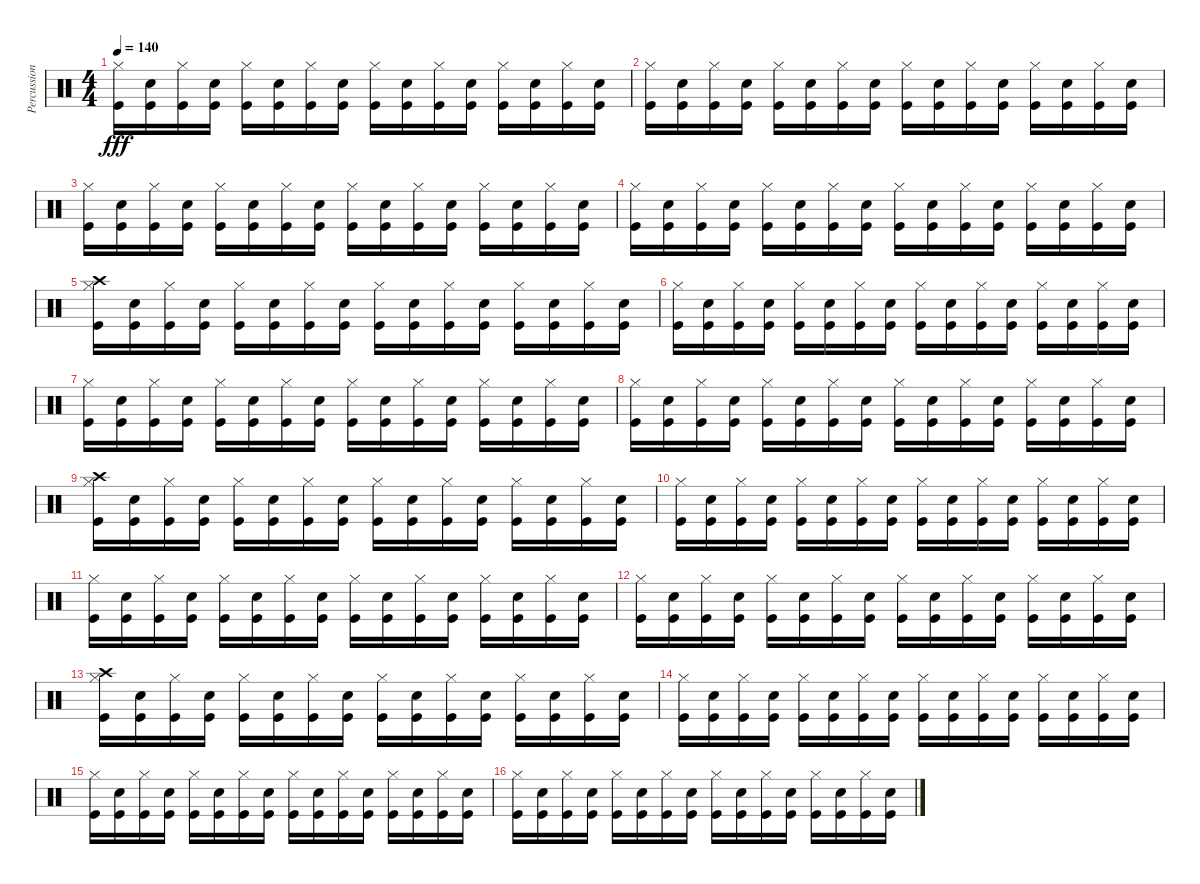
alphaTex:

\track ("Percussion" "Percussion") {instrument percussion}
\staff {score}
\articulation defaults
\ts (4 4)
\tempo 140
\clef neutral
\ks c
("Hi-Hat (closed)" "Kick (hit)").16{dy fff} ("Snare (hit) 2" "Kick (hit)").16 ("Hi-Hat (closed)" "Kick (hit)").16 ("Snare (hit) 2" "Kick (hit)").16 ("Hi-Hat (closed)" "Kick (hit)").16 ("Snare (hit) 2" "Kick (hit)").16 ("Hi-Hat (closed)" "Kick (hit)").16 ("Snare (hit) 2" "Kick (hit)").16 ("Hi-Hat (closed)" "Kick (hit)").16 ("Snare (hit) 2" "Kick (hit)").16 ("Hi-Hat (closed)" "Kick (hit)").16 ("Snare (hit) 2" "Kick (hit)").16 ("Hi-Hat (closed)" "Kick (hit)").16 ("Snare (hit) 2" "Kick (hit)").16 ("Hi-Hat (closed)" "Kick (hit)").16 ("Snare (hit) 2" "Kick (hit)").16 |
("Hi-Hat (closed)" "Kick (hit)").16 ("Snare (hit) 2" "Kick (hit)").16 ("Hi-Hat (closed)" "Kick (hit)").16 ("Snare (hit) 2" "Kick (hit)").16 ("Hi-Hat (closed)" "Kick (hit)").16 ("Snare (hit) 2" "Kick (hit)").16 ("Hi-Hat (closed)" "Kick (hit)").16 ("Snare (hit) 2" "Kick (hit)").16 ("Hi-Hat (closed)" "Kick (hit)").16 ("Snare (hit) 2" "Kick (hit)").16 ("Hi-Hat (closed)" "Kick (hit)").16 ("Snare (hit) 2" "Kick (hit)").16 ("Hi-Hat (closed)" "Kick (hit)").16 ("Snare (hit) 2" "Kick (hit)").16 ("Hi-Hat (closed)" "Kick (hit)").16 ("Snare (hit) 2" "Kick (hit)").16 |
("Hi-Hat (closed)" "Kick (hit)").16 ("Snare (hit) 2" "Kick (hit)").16 ("Hi-Hat (closed)" "Kick (hit)").16 ("Snare (hit) 2" "Kick (hit)").16 ("Hi-Hat (closed)" "Kick (hit)").16 ("Snare (hit) 2" "Kick (hit)").16 ("Hi-Hat (closed)" "Kick (hit)").16 ("Snare (hit) 2" "Kick (hit)").16 ("Hi-Hat (closed)" "Kick (hit)").16 ("Snare (hit) 2" "Kick (hit)").16 ("Hi-Hat (closed)" "Kick (hit)").16 ("Snare (hit) 2" "Kick (hit)").16 ("Hi-Hat (closed)" "Kick (hit)").16 ("Snare (hit) 2" "Kick (hit)").16 ("Hi-Hat (closed)" "Kick (hit)").16 ("Snare (hit) 2" "Kick (hit)").16 |
("Hi-Hat (closed)" "Kick (hit)").16 ("Snare (hit) 2" "Kick (hit)").16 ("Hi-Hat (closed)" "Kick (hit)").16 ("Snare (hit) 2" "Kick (hit)").16 ("Hi-Hat (closed)" "Kick (hit)").16 ("Snare (hit) 2" "Kick (hit)").16 ("Hi-Hat (closed)" "Kick (hit)").16 ("Snare (hit) 2" "Kick (hit)").16 ("Hi-Hat (closed)" "Kick (hit)").16 ("Snare (hit) 2" "Kick (hit)").16 ("Hi-Hat (closed)" "Kick (hit)").16 ("Snare (hit) 2" "Kick (hit)").16 ("Hi-Hat (closed)" "Kick (hit)").16 ("Snare (hit) 2" "Kick (hit)").16 ("Hi-Hat (closed)" "Kick (hit)").16 ("Snare (hit) 2" "Kick (hit)").16 |
("Crash high (hit)" "Hi-Hat (closed)" "Kick (hit)").16 ("Snare (hit) 2" "Kick (hit)").16 ("Hi-Hat (closed)" "Kick (hit)").16 ("Snare (hit) 2" "Kick (hit)").16 ("Hi-Hat (closed)" "Kick (hit)").16 ("Snare (hit) 2" "Kick (hit)").16 ("Hi-Hat (closed)" "Kick (hit)").16 ("Snare (hit) 2" "Kick (hit)").16 ("Hi-Hat (closed)" "Kick (hit)").16 ("Snare (hit) 2" "Kick (hit)").16 ("Hi-Hat (closed)" "Kick (hit)").16 ("Snare (hit) 2" "Kick (hit)").16 ("Hi-Hat (closed)" "Kick (hit)").16 ("Snare (hit) 2" "Kick (hit)").16 ("Hi-Hat (closed)" "Kick (hit)").16 ("Snare (hit) 2" "Kick (hit)").16 |
("Hi-Hat (closed)" "Kick (hit)").16 ("Snare (hit) 2" "Kick (hit)").16 ("Hi-Hat (closed)" "Kick (hit)").16 ("Snare (hit) 2" "Kick (hit)").16 ("Hi-Hat (closed)" "Kick (hit)").16 ("Snare (hit) 2" "Kick (hit)").16 ("Hi-Hat (closed)" "Kick (hit)").16 ("Snare (hit) 2" "Kick (hit)").16 ("Hi-Hat (closed)" "Kick (hit)").16 ("Snare (hit) 2" "Kick (hit)").16 ("Hi-Hat (closed)" "Kick (hit)").16 ("Snare (hit) 2" "Kick (hit)").16 ("Hi-Hat (closed)" "Kick (hit)").16 ("Snare (hit) 2" "Kick (hit)").16 ("Hi-Hat (closed)" "Kick (hit)").16 ("Snare (hit) 2" "Kick (hit)").16 |
("Hi-Hat (closed)" "Kick (hit)").16 ("Snare (hit) 2" "Kick (hit)").16 ("Hi-Hat (closed)" "Kick (hit)").16 ("Snare (hit) 2" "Kick (hit)").16 ("Hi-Hat (closed)" "Kick (hit)").16 ("Snare (hit) 2" "Kick (hit)").16 ("Hi-Hat (closed)" "Kick (hit)").16 ("Snare (hit) 2" "Kick (hit)").16 ("Hi-Hat (closed)" "Kick (hit)").16 ("Snare (hit) 2" "Kick (hit)").16 ("Hi-Hat (closed)" "Kick (hit)").16 ("Snare (hit) 2" "Kick (hit)").16 ("Hi-Hat (closed)" "Kick (hit)").16 ("Snare (hit) 2" "Kick (hit)").16 ("Hi-Hat (closed)" "Kick (hit)").16 ("Snare (hit) 2" "Kick (hit)").16 |
("Hi-Hat (closed)" "Kick (hit)").16 ("Snare (hit) 2" "Kick (hit)").16 ("Hi-Hat (closed)" "Kick (hit)").16 ("Snare (hit) 2" "Kick (hit)").16 ("Hi-Hat (closed)" "Kick (hit)").16 ("Snare (hit) 2" "Kick (hit)").16 ("Hi-Hat (closed)" "Kick (hit)").16 ("Snare (hit) 2" "Kick (hit)").16 ("Hi-Hat (closed)" "Kick (hit)").16 ("Snare (hit) 2" "Kick (hit)").16 ("Hi-Hat (closed)" "Kick (hit)").16 ("Snare (hit) 2" "Kick (hit)").16 ("Hi-Hat (closed)" "Kick (hit)").16 ("Snare (hit) 2" "Kick (hit)").16 ("Hi-Hat (closed)" "Kick (hit)").16 ("Snare (hit) 2" "Kick (hit)").16 |
("Crash high (hit)" "Hi-Hat (closed)" "Kick (hit)").16 ("Snare (hit) 2" "Kick (hit)").16 ("Hi-Hat (closed)" "Kick (hit)").16 ("Snare (hit) 2" "Kick (hit)").16 ("Hi-Hat (closed)" "Kick (hit)").16 ("Snare (hit) 2" "Kick (hit)").16 ("Hi-Hat (closed)" "Kick (hit)").16 ("Snare (hit) 2" "Kick (hit)").16 ("Hi-Hat (closed)" "Kick (hit)").16 ("Snare (hit) 2" "Kick (hit)").16 ("Hi-Hat (closed)" "Kick (hit)").16 ("Snare (hit) 2" "Kick (hit)").16 ("Hi-Hat (closed)" "Kick (hit)").16 ("Snare (hit) 2" "Kick (hit)").16 ("Hi-Hat (closed)" "Kick (hit)").16 ("Snare (hit) 2" "Kick (hit)").16 |
("Hi-Hat (closed)" "Kick (hit)").16 ("Snare (hit) 2" "Kick (hit)").16 ("Hi-Hat (closed)" "Kick (hit)").16 ("Snare (hit) 2" "Kick (hit)").16 ("Hi-Hat (closed)" "Kick (hit)").16 ("Snare (hit) 2" "Kick (hit)").16 ("Hi-Hat (closed)" "Kick (hit)").16 ("Snare (hit) 2" "Kick (hit)").16 ("Hi-Hat (closed)" "Kick (hit)").16 ("Snare (hit) 2" "Kick (hit)").16 ("Hi-Hat (closed)" "Kick (hit)").16 ("Snare (hit) 2" "Kick (hit)").16 ("Hi-Hat (closed)" "Kick (hit)").16 ("Snare (hit) 2" "Kick (hit)").16 ("Hi-Hat (closed)" "Kick (hit)").16 ("Snare (hit) 2" "Kick (hit)").16 |
("Hi-Hat (closed)" "Kick (hit)").16 ("Snare (hit) 2" "Kick (hit)").16 ("Hi-Hat (closed)" "Kick (hit)").16 ("Snare (hit) 2" "Kick (hit)").16 ("Hi-Hat (closed)" "Kick (hit)").16 ("Snare (hit) 2" "Kick (hit)").16 ("Hi-Hat (closed)" "Kick (hit)").16 ("Snare (hit) 2" "Kick (hit)").16 ("Hi-Hat (closed)" "Kick (hit)").16 ("Snare (hit) 2" "Kick (hit)").16 ("Hi-Hat (closed)" "Kick (hit)").16 ("Snare (hit) 2" "Kick (hit)").16 ("Hi-Hat (closed)" "Kick (hit)").16 ("Snare (hit) 2" "Kick (hit)").16 ("Hi-Hat (closed)" "Kick (hit)").16 ("Snare (hit) 2" "Kick (hit)").16 |
("Hi-Hat (closed)" "Kick (hit)").16 ("Snare (hit) 2" "Kick (hit)").16 ("Hi-Hat (closed)" "Kick (hit)").16 ("Snare (hit) 2" "Kick (hit)").16 ("Hi-Hat (closed)" "Kick (hit)").16 ("Snare (hit) 2" "Kick (hit)").16 ("Hi-Hat (closed)" "Kick (hit)").16 ("Snare (hit) 2" "Kick (hit)").16 ("Hi-Hat (closed)" "Kick (hit)").16 ("Snare (hit) 2" "Kick (hit)").16 ("Hi-Hat (closed)" "Kick (hit)").16 ("Snare (hit) 2" "Kick (hit)").16 ("Hi-Hat (closed)" "Kick (hit)").16 ("Snare (hit) 2" "Kick (hit)").16 ("Hi-Hat (closed)" "Kick (hit)").16 ("Snare (hit) 2" "Kick (hit)").16 |
("Crash high (hit)" "Hi-Hat (closed)" "Kick (hit)").16 ("Snare (hit) 2" "Kick (hit)").16 ("Hi-Hat (closed)" "Kick (hit)").16 ("Snare (hit) 2" "Kick (hit)").16 ("Hi-Hat (closed)" "Kick (hit)").16 ("Snare (hit) 2" "Kick (hit)").16 ("Hi-Hat (closed)" "Kick (hit)").16 ("Snare (hit) 2" "Kick (hit)").16 ("Hi-Hat (closed)" "Kick (hit)").16 ("Snare (hit) 2" "Kick (hit)").16 ("Hi-Hat (closed)" "Kick (hit)").16 ("Snare (hit) 2" "Kick (hit)").16 ("Hi-Hat (closed)" "Kick (hit)").16 ("Snare (hit) 2" "Kick (hit)").16 ("Hi-Hat (closed)" "Kick (hit)").16 ("Snare (hit) 2" "Kick (hit)").16 |
("Hi-Hat (closed)" "Kick (hit)").16 ("Snare (hit) 2" "Kick (hit)").16 ("Hi-Hat (closed)" "Kick (hit)").16 ("Snare (hit) 2" "Kick (hit)").16 ("Hi-Hat (closed)" "Kick (hit)").16 ("Snare (hit) 2" "Kick (hit)").16 ("Hi-Hat (closed)" "Kick (hit)").16 ("Snare (hit) 2" "Kick (hit)").16 ("Hi-Hat (closed)" "Kick (hit)").16 ("Snare (hit) 2" "Kick (hit)").16 ("Hi-Hat (closed)" "Kick (hit)").16 ("Snare (hit) 2" "Kick (hit)").16 ("Hi-Hat (closed)" "Kick (hit)").16 ("Snare (hit) 2" "Kick (hit)").16 ("Hi-Hat (closed)" "Kick (hit)").16 ("Snare (hit) 2" "Kick (hit)").16 |
("Hi-Hat (closed)" "Kick (hit)").16 ("Snare (hit) 2" "Kick (hit)").16 ("Hi-Hat (closed)" "Kick (hit)").16 ("Snare (hit) 2" "Kick (hit)").16 ("Hi-Hat (closed)" "Kick (hit)").16 ("Snare (hit) 2" "Kick (hit)").16 ("Hi-Hat (closed)" "Kick (hit)").16 ("Snare (hit) 2" "Kick (hit)").16 ("Hi-Hat (closed)" "Kick (hit)").16 ("Snare (hit) 2" "Kick (hit)").16 ("Hi-Hat (closed)" "Kick (hit)").16 ("Snare (hit) 2" "Kick (hit)").16 ("Hi-Hat (closed)" "Kick (hit)").16 ("Snare (hit) 2" "Kick (hit)").16 ("Hi-Hat (closed)" "Kick (hit)").16 ("Snare (hit) 2" "Kick (hit)").16 |
("Hi-Hat (closed)" "Kick (hit)").16 ("Snare (hit) 2" "Kick (hit)").16 ("Hi-Hat (closed)" "Kick (hit)").16 ("Snare (hit) 2" "Kick (hit)").16 ("Hi-Hat (closed)" "Kick (hit)").16 ("Snare (hit) 2" "Kick (hit)").16 ("Hi-Hat (closed)" "Kick (hit)").16 ("Snare (hit) 2" "Kick (hit)").16 ("Hi-Hat (closed)" "Kick (hit)").16 ("Snare (hit) 2" "Kick (hit)").16 ("Hi-Hat (closed)" "Kick (hit)").16 ("Snare (hit) 2" "Kick (hit)").16 ("Hi-Hat (closed)" "Kick (hit)").16 ("Snare (hit) 2" "Kick (hit)").16 ("Hi-Hat (closed)" "Kick (hit)").16 ("Snare (hit) 2" "Kick (hit)").16
